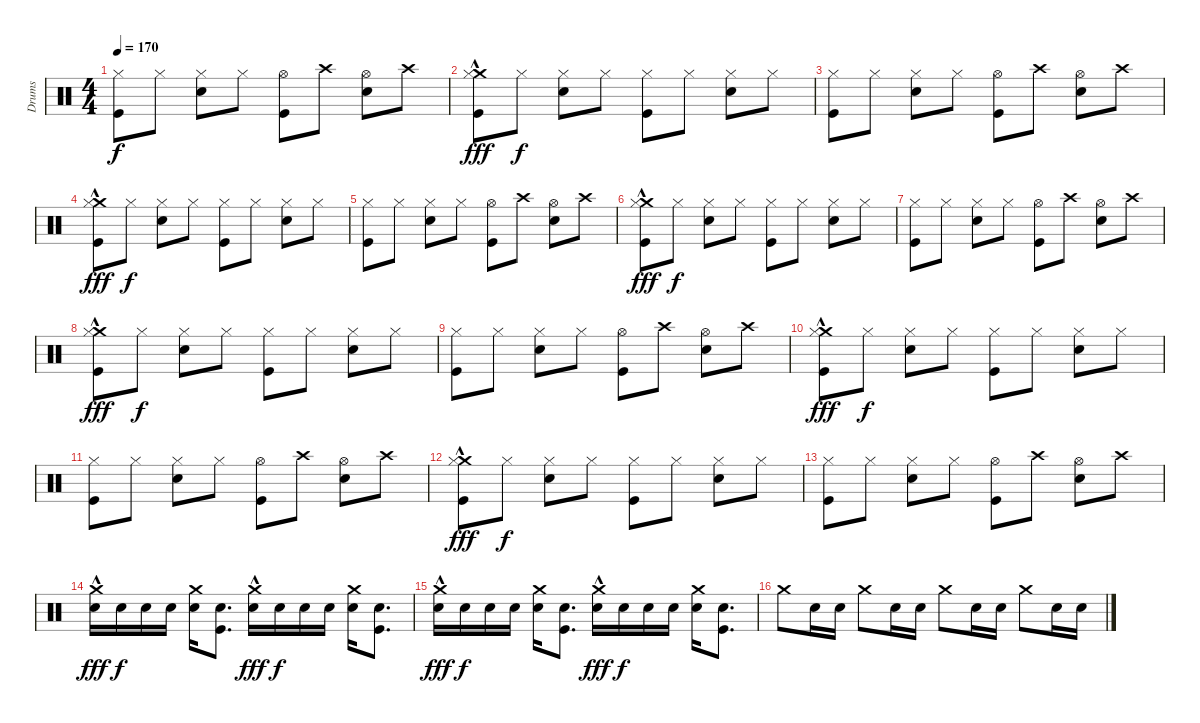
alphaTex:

\track ("Drums" "Drums") {instrument percussion}
\staff {score}
\articulation defaults
\ts (4 4)
\tempo 170
\clef neutral
\ks c
("Hi-Hat (closed)" "Kick (hit)").8{dy f} "Hi-Hat (closed)".8 ("Hi-Hat (closed)" "Electric Snare (hit)").8 "Hi-Hat (closed)".8 ("Hi-Hat (open)" "Kick (hit)").8 "Crash high (hit)".8 ("Hi-Hat (open)" "Electric Snare (hit)").8 "Crash high (hit)".8 |
("Crash medium (hit)"{hac} "Hi-Hat (closed)" "Kick (hit)").8{dy fff} "Hi-Hat (closed)".8{dy f} ("Hi-Hat (closed)" "Electric Snare (hit)").8 "Hi-Hat (closed)".8 ("Hi-Hat (closed)" "Kick (hit)").8 "Hi-Hat (closed)".8 ("Hi-Hat (closed)" "Electric Snare (hit)").8 "Hi-Hat (closed)".8 |
("Hi-Hat (closed)" "Kick (hit)").8 "Hi-Hat (closed)".8 ("Hi-Hat (closed)" "Electric Snare (hit)").8 "Hi-Hat (closed)".8 ("Hi-Hat (open)" "Kick (hit)").8 "Crash high (hit)".8 ("Hi-Hat (open)" "Electric Snare (hit)").8 "Crash high (hit)".8 |
("Crash medium (hit)"{hac} "Hi-Hat (closed)" "Kick (hit)").8{dy fff} "Hi-Hat (closed)".8{dy f} ("Hi-Hat (closed)" "Electric Snare (hit)").8 "Hi-Hat (closed)".8 ("Hi-Hat (closed)" "Kick (hit)").8 "Hi-Hat (closed)".8 ("Hi-Hat (closed)" "Electric Snare (hit)").8 "Hi-Hat (closed)".8 |
("Hi-Hat (closed)" "Kick (hit)").8 "Hi-Hat (closed)".8 ("Hi-Hat (closed)" "Electric Snare (hit)").8 "Hi-Hat (closed)".8 ("Hi-Hat (open)" "Kick (hit)").8 "Crash high (hit)".8 ("Hi-Hat (open)" "Electric Snare (hit)").8 "Crash high (hit)".8 |
("Crash medium (hit)"{hac} "Hi-Hat (closed)" "Kick (hit)").8{dy fff} "Hi-Hat (closed)".8{dy f} ("Hi-Hat (closed)" "Electric Snare (hit)").8 "Hi-Hat (closed)".8 ("Hi-Hat (closed)" "Kick (hit)").8 "Hi-Hat (closed)".8 ("Hi-Hat (closed)" "Electric Snare (hit)").8 "Hi-Hat (closed)".8 |
("Hi-Hat (closed)" "Kick (hit)").8 "Hi-Hat (closed)".8 ("Hi-Hat (closed)" "Electric Snare (hit)").8 "Hi-Hat (closed)".8 ("Hi-Hat (open)" "Kick (hit)").8 "Crash high (hit)".8 ("Hi-Hat (open)" "Electric Snare (hit)").8 "Crash high (hit)".8 |
("Crash medium (hit)"{hac} "Hi-Hat (closed)" "Kick (hit)").8{dy fff} "Hi-Hat (closed)".8{dy f} ("Hi-Hat (closed)" "Electric Snare (hit)").8 "Hi-Hat (closed)".8 ("Hi-Hat (closed)" "Kick (hit)").8 "Hi-Hat (closed)".8 ("Hi-Hat (closed)" "Electric Snare (hit)").8 "Hi-Hat (closed)".8 |
("Hi-Hat (closed)" "Kick (hit)").8 "Hi-Hat (closed)".8 ("Hi-Hat (closed)" "Electric Snare (hit)").8 "Hi-Hat (closed)".8 ("Hi-Hat (open)" "Kick (hit)").8 "Crash high (hit)".8 ("Hi-Hat (open)" "Electric Snare (hit)").8 "Crash high (hit)".8 |
("Crash medium (hit)"{hac} "Hi-Hat (closed)" "Kick (hit)").8{dy fff} "Hi-Hat (closed)".8{dy f} ("Hi-Hat (closed)" "Electric Snare (hit)").8 "Hi-Hat (closed)".8 ("Hi-Hat (closed)" "Kick (hit)").8 "Hi-Hat (closed)".8 ("Hi-Hat (closed)" "Electric Snare (hit)").8 "Hi-Hat (closed)".8 |
("Hi-Hat (closed)" "Kick (hit)").8 "Hi-Hat (closed)".8 ("Hi-Hat (closed)" "Electric Snare (hit)").8 "Hi-Hat (closed)".8 ("Hi-Hat (open)" "Kick (hit)").8 "Crash high (hit)".8 ("Hi-Hat (open)" "Electric Snare (hit)").8 "Crash high (hit)".8 |
("Crash medium (hit)"{hac} "Hi-Hat (closed)" "Kick (hit)").8{dy fff} "Hi-Hat (closed)".8{dy f} ("Hi-Hat (closed)" "Electric Snare (hit)").8 "Hi-Hat (closed)".8 ("Hi-Hat (closed)" "Kick (hit)").8 "Hi-Hat (closed)".8 ("Hi-Hat (closed)" "Electric Snare (hit)").8 "Hi-Hat (closed)".8 |
("Hi-Hat (closed)" "Kick (hit)").8 "Hi-Hat (closed)".8 ("Hi-Hat (closed)" "Electric Snare (hit)").8 "Hi-Hat (closed)".8 ("Hi-Hat (open)" "Kick (hit)").8 "Crash high (hit)".8 ("Hi-Hat (open)" "Electric Snare (hit)").8 "Crash high (hit)".8 |
("Crash medium (hit)"{hac} "Electric Snare (hit)").16{dy fff} "Electric Snare (hit)".16{dy f} "Electric Snare (hit)".16 "Electric Snare (hit)".16 ("Crash medium (hit)" "Electric Snare (hit)").16 ("Electric Snare (hit)" "Kick (hit)").8{d} ("Crash medium (hit)"{hac} "Electric Snare (hit)").16{dy fff} "Electric Snare (hit)".16{dy f} "Electric Snare (hit)".16 "Electric Snare (hit)".16 ("Crash medium (hit)" "Electric Snare (hit)").16 ("Electric Snare (hit)" "Kick (hit)").8{d} |
("Crash medium (hit)"{hac} "Electric Snare (hit)").16{dy fff} "Electric Snare (hit)".16{dy f} "Electric Snare (hit)".16 "Electric Snare (hit)".16 ("Crash medium (hit)" "Electric Snare (hit)").16 ("Electric Snare (hit)" "Kick (hit)").8{d} ("Crash medium (hit)"{hac} "Electric Snare (hit)").16{dy fff} "Electric Snare (hit)".16{dy f} "Electric Snare (hit)".16 "Electric Snare (hit)".16 ("Crash medium (hit)" "Electric Snare (hit)").16 ("Electric Snare (hit)" "Kick (hit)").8{d} |
"Crash medium (hit)".8 "Electric Snare (hit)".16 "Electric Snare (hit)".16 "Crash medium (hit)".8 "Electric Snare (hit)".16 "Electric Snare (hit)".16 "Crash medium (hit)".8 "Electric Snare (hit)".16 "Electric Snare (hit)".16 "Crash medium (hit)".8 "Electric Snare (hit)".16 "Electric Snare (hit)".16
